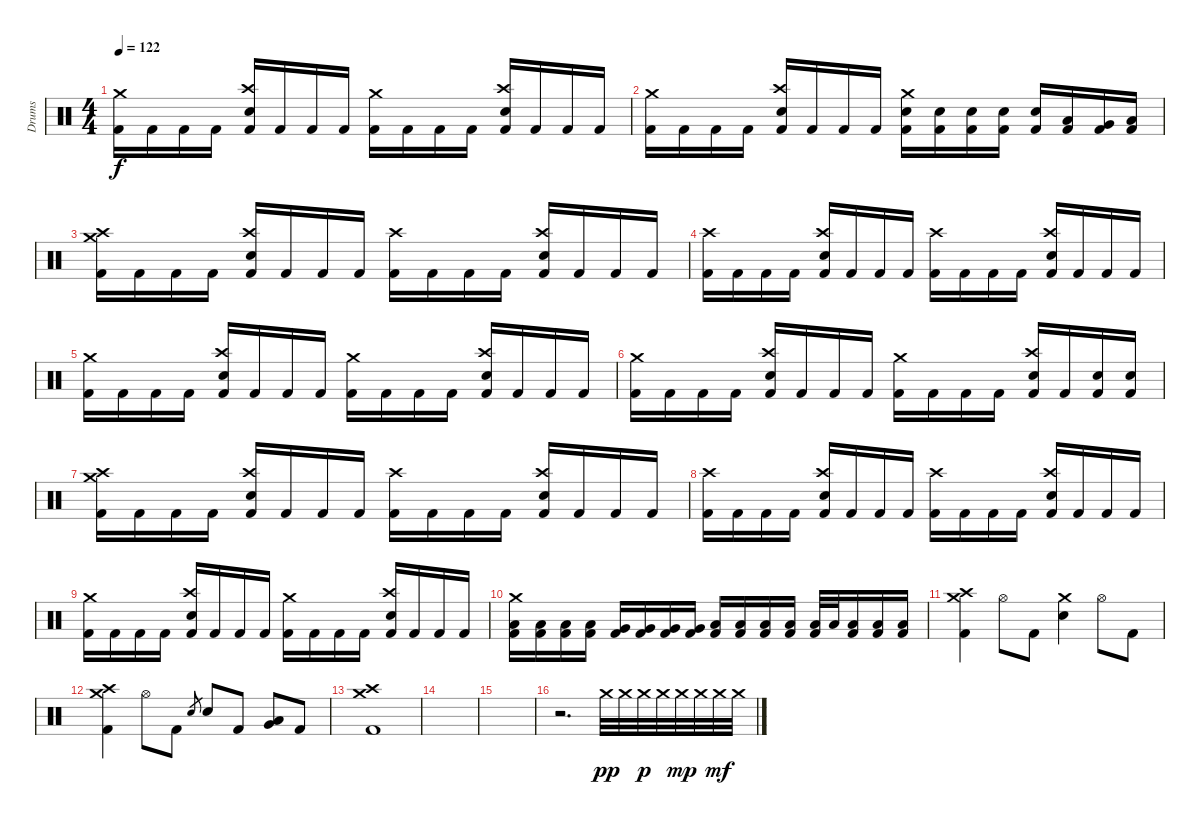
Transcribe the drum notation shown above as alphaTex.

\track ("Drums" "Drums") {instrument percussion}
\staff {score}
\articulation defaults
\ts (4 4)
\tempo 122
\clef neutral
\ks c
("Crash medium (hit)" "Kick (hit) 2").16{dy f} "Kick (hit) 2".16 "Kick (hit) 2".16 "Kick (hit) 2".16 ("Crash high (hit)" "Electric Snare (hit)" "Kick (hit) 2").16 "Kick (hit) 2".16 "Kick (hit) 2".16 "Kick (hit) 2".16 ("Crash medium (hit)" "Kick (hit) 2").16 "Kick (hit) 2".16 "Kick (hit) 2".16 "Kick (hit) 2".16 ("Crash high (hit)" "Electric Snare (hit)" "Kick (hit) 2").16 "Kick (hit) 2".16 "Kick (hit) 2".16 "Kick (hit) 2".16 |
("Crash medium (hit)" "Kick (hit) 2").16 "Kick (hit) 2".16 "Kick (hit) 2".16 "Kick (hit) 2".16 ("Crash high (hit)" "Electric Snare (hit)" "Kick (hit) 2").16 "Kick (hit) 2".16 "Kick (hit) 2".16 "Kick (hit) 2".16 ("Crash medium (hit)" "Electric Snare (hit)" "Kick (hit) 2").16 ("Electric Snare (hit)" "Kick (hit) 2").16 ("Electric Snare (hit)" "Kick (hit) 2").16 ("Electric Snare (hit)" "Kick (hit) 2").16 ("Electric Snare (hit)" "Kick (hit) 2").16 ("Low Tom (hit)" "Kick (hit) 2").16 ("Very Low Tom (hit)" "Kick (hit) 2").16 ("Low Floor Tom (hit)" "Kick (hit) 2").16 |
("Crash medium (hit)" "Crash high (hit)" "Kick (hit) 2").16 "Kick (hit) 2".16 "Kick (hit) 2".16 "Kick (hit) 2".16 ("Crash high (hit)" "Electric Snare (hit)" "Kick (hit) 2").16 "Kick (hit) 2".16 "Kick (hit) 2".16 "Kick (hit) 2".16 ("Crash high (hit)" "Kick (hit) 2").16 "Kick (hit) 2".16 "Kick (hit) 2".16 "Kick (hit) 2".16 ("Crash high (hit)" "Electric Snare (hit)" "Kick (hit) 2").16 "Kick (hit) 2".16 "Kick (hit) 2".16 "Kick (hit) 2".16 |
("Crash high (hit)" "Kick (hit) 2").16 "Kick (hit) 2".16 "Kick (hit) 2".16 "Kick (hit) 2".16 ("Crash high (hit)" "Electric Snare (hit)" "Kick (hit) 2").16 "Kick (hit) 2".16 "Kick (hit) 2".16 "Kick (hit) 2".16 ("Crash high (hit)" "Kick (hit) 2").16 "Kick (hit) 2".16 "Kick (hit) 2".16 "Kick (hit) 2".16 ("Crash high (hit)" "Electric Snare (hit)" "Kick (hit) 2").16 "Kick (hit) 2".16 "Kick (hit) 2".16 "Kick (hit) 2".16 |
("Crash medium (hit)" "Kick (hit) 2").16 "Kick (hit) 2".16 "Kick (hit) 2".16 "Kick (hit) 2".16 ("Crash high (hit)" "Electric Snare (hit)" "Kick (hit) 2").16 "Kick (hit) 2".16 "Kick (hit) 2".16 "Kick (hit) 2".16 ("Crash medium (hit)" "Kick (hit) 2").16 "Kick (hit) 2".16 "Kick (hit) 2".16 "Kick (hit) 2".16 ("Crash high (hit)" "Electric Snare (hit)" "Kick (hit) 2").16 "Kick (hit) 2".16 "Kick (hit) 2".16 "Kick (hit) 2".16 |
("Crash medium (hit)" "Kick (hit) 2").16 "Kick (hit) 2".16 "Kick (hit) 2".16 "Kick (hit) 2".16 ("Crash high (hit)" "Electric Snare (hit)" "Kick (hit) 2").16 "Kick (hit) 2".16 "Kick (hit) 2".16 "Kick (hit) 2".16 ("Crash medium (hit)" "Kick (hit) 2").16 "Kick (hit) 2".16 "Kick (hit) 2".16 "Kick (hit) 2".16 ("Crash high (hit)" "Electric Snare (hit)" "Kick (hit) 2").16 "Kick (hit) 2".16 ("Electric Snare (hit)" "Kick (hit) 2").16 ("Electric Snare (hit)" "Kick (hit) 2").16 |
("Crash medium (hit)" "Crash high (hit)" "Kick (hit) 2").16 "Kick (hit) 2".16 "Kick (hit) 2".16 "Kick (hit) 2".16 ("Crash high (hit)" "Electric Snare (hit)" "Kick (hit) 2").16 "Kick (hit) 2".16 "Kick (hit) 2".16 "Kick (hit) 2".16 ("Crash high (hit)" "Kick (hit) 2").16 "Kick (hit) 2".16 "Kick (hit) 2".16 "Kick (hit) 2".16 ("Crash high (hit)" "Electric Snare (hit)" "Kick (hit) 2").16 "Kick (hit) 2".16 "Kick (hit) 2".16 "Kick (hit) 2".16 |
("Crash high (hit)" "Kick (hit) 2").16 "Kick (hit) 2".16 "Kick (hit) 2".16 "Kick (hit) 2".16 ("Crash high (hit)" "Electric Snare (hit)" "Kick (hit) 2").16 "Kick (hit) 2".16 "Kick (hit) 2".16 "Kick (hit) 2".16 ("Crash high (hit)" "Kick (hit) 2").16 "Kick (hit) 2".16 "Kick (hit) 2".16 "Kick (hit) 2".16 ("Crash high (hit)" "Electric Snare (hit)" "Kick (hit) 2").16 "Kick (hit) 2".16 "Kick (hit) 2".16 "Kick (hit) 2".16 |
("Crash medium (hit)" "Kick (hit) 2").16 "Kick (hit) 2".16 "Kick (hit) 2".16 "Kick (hit) 2".16 ("Crash high (hit)" "Electric Snare (hit)" "Kick (hit) 2").16 "Kick (hit) 2".16 "Kick (hit) 2".16 "Kick (hit) 2".16 ("Crash medium (hit)" "Kick (hit) 2").16 "Kick (hit) 2".16 "Kick (hit) 2".16 "Kick (hit) 2".16 ("Crash high (hit)" "Electric Snare (hit)" "Kick (hit) 2").16 "Kick (hit) 2".16 "Kick (hit) 2".16 "Kick (hit) 2".16 |
("Crash medium (hit)" "Low Tom (hit)" "Kick (hit) 2").16 ("Low Tom (hit)" "Kick (hit) 2").16 ("Low Tom (hit)" "Kick (hit) 2").16 ("Low Tom (hit)" "Kick (hit) 2").16 ("Very Low Tom (hit)" "Kick (hit) 2").16 ("Very Low Tom (hit)" "Kick (hit) 2").16 ("Very Low Tom (hit)" "Kick (hit) 2").16 ("Very Low Tom (hit)" "Kick (hit) 2").16 ("Low Floor Tom (hit)" "Kick (hit) 2").16 ("Low Floor Tom (hit)" "Kick (hit) 2").16 ("Low Floor Tom (hit)" "Kick (hit) 2").16 ("Low Floor Tom (hit)" "Kick (hit) 2").16 ("Low Floor Tom (hit)" "Kick (hit) 2").32 "Low Floor Tom (hit)".32 ("Low Floor Tom (hit)" "Kick (hit) 2").16 ("Low Floor Tom (hit)" "Kick (hit) 2").16 ("Low Floor Tom (hit)" "Kick (hit) 2").16 |
("Crash medium (hit)" "Crash high (hit)" "Kick (hit) 2").4 "Hi-Hat (open)".8 "Kick (hit) 2".8 ("Crash medium (hit)" "Electric Snare (hit)").4 "Hi-Hat (open)".8 "Kick (hit) 2".8 |
("Crash medium (hit)" "Crash high (hit)" "Kick (hit) 2").4 "Hi-Hat (open)".8 "Kick (hit) 2".8 "Electric Snare (hit)".8{gr} "Electric Snare (hit)".8 "Kick (hit) 2".8 ("Low Floor Tom (hit)" "Very Low Tom (hit)").8 "Kick (hit) 2".8 |
("Crash medium (hit)" "Crash high (hit)" "Kick (hit) 2").1 |
|
|
r.2{d} "Crash medium (hit)".32{dy pp} "Crash medium (hit)".32 "Crash medium (hit)".32{dy p} "Crash medium (hit)".32 "Crash medium (hit)".32{dy mp} "Crash medium (hit)".32 "Crash medium (hit)".32{dy mf} "Crash medium (hit)".32
